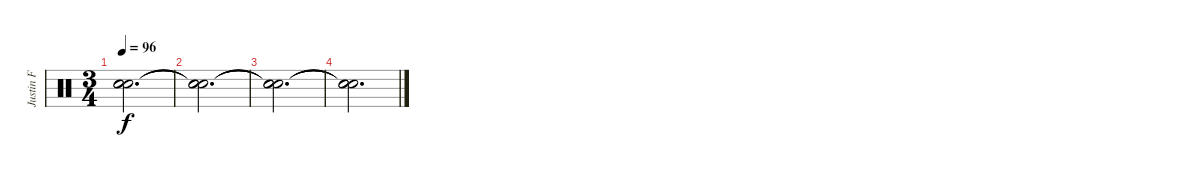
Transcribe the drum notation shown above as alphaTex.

\track ("Justin F" "Justin F") {instrument percussion}
\staff {score}
\articulation defaults
\ts (3 4)
\tempo 96
\clef neutral
\ks c
("Snare (hit)"{t} "Snare (hit)"{t} "Snare (hit)"{t}).2{d dy f} |
("Snare (hit)"{t} "Snare (hit)"{t} "Snare (hit)"{t}).2{d} |
("Snare (hit)"{t} "Snare (hit)"{t} "Snare (hit)"{t}).2{d} |
("Snare (hit)"{t} "Snare (hit)"{t} "Snare (hit)"{t}).2{d}
